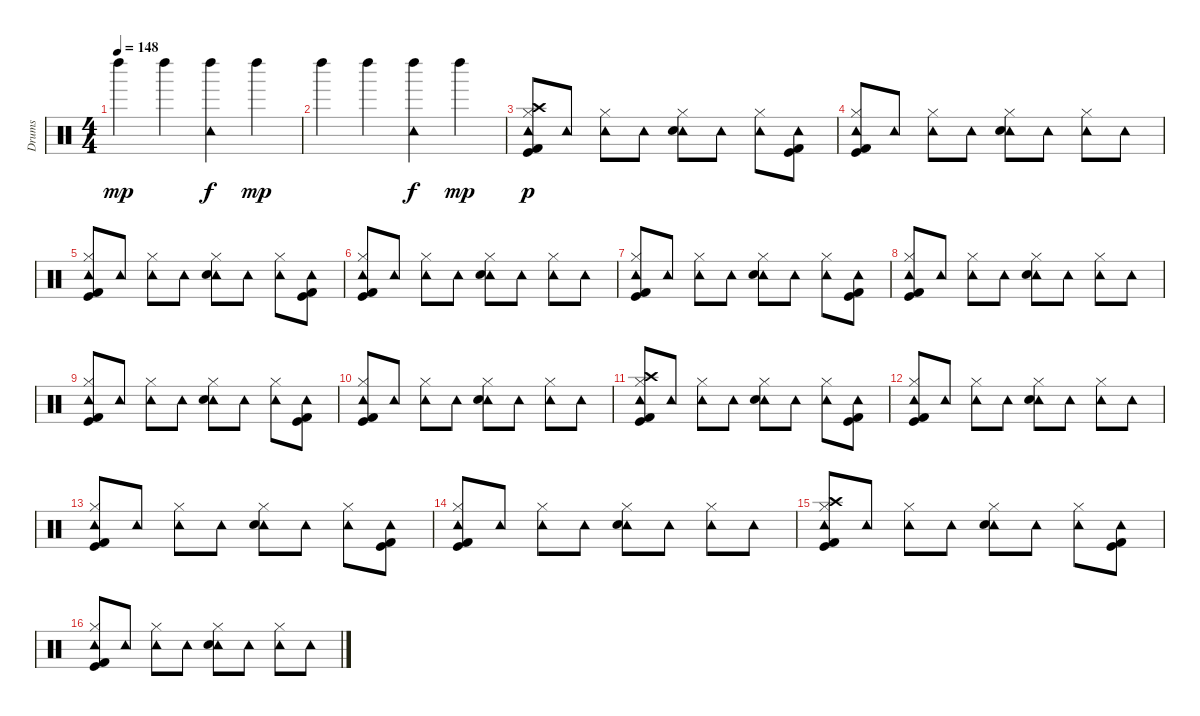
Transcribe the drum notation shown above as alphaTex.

\track ("Drums" "Drums") {instrument percussion}
\staff {score}
\articulation defaults
\ts (4 4)
\tempo 148
\clef neutral
\ks c "Left Maraca (hit)".4{dy mp} "Left Maraca (hit)".4
("Tambourine (hit)" "Left Maraca (hit)").4{dy f} "Left Maraca (hit)".4{dy mp} |
"Left Maraca (hit)".4 "Left Maraca (hit)".4 ("Tambourine (hit)" "Left Maraca (hit)").4{dy f} "Left Maraca (hit)".4{dy mp} |
("Hi-Hat (closed)" "Tambourine (hit)" "Crash high (hit)" "Kick (hit) 2" "Kick (hit)").8{dy p} "Tambourine (hit)".8 ("Hi-Hat (closed)" "Tambourine (hit)").8 "Tambourine (hit)".8 ("Hi-Hat (closed)" "Tambourine (hit)" "Electric Snare (hit)").8 "Tambourine (hit)".8 ("Hi-Hat (closed)" "Tambourine (hit)").8 ("Tambourine (hit)" "Kick (hit) 2" "Kick (hit)").8 |
("Hi-Hat (closed)" "Tambourine (hit)" "Kick (hit) 2" "Kick (hit)").8 "Tambourine (hit)".8 ("Hi-Hat (closed)" "Tambourine (hit)").8 "Tambourine (hit)".8 ("Hi-Hat (closed)" "Tambourine (hit)" "Electric Snare (hit)").8 "Tambourine (hit)".8 ("Hi-Hat (closed)" "Tambourine (hit)").8 "Tambourine (hit)".8 |
("Hi-Hat (closed)" "Tambourine (hit)" "Kick (hit) 2" "Kick (hit)").8 "Tambourine (hit)".8 ("Hi-Hat (closed)" "Tambourine (hit)").8 "Tambourine (hit)".8 ("Hi-Hat (closed)" "Tambourine (hit)" "Electric Snare (hit)").8 "Tambourine (hit)".8 ("Hi-Hat (closed)" "Tambourine (hit)").8 ("Tambourine (hit)" "Kick (hit) 2" "Kick (hit)").8 |
("Hi-Hat (closed)" "Tambourine (hit)" "Kick (hit) 2" "Kick (hit)").8 "Tambourine (hit)".8 ("Hi-Hat (closed)" "Tambourine (hit)").8 "Tambourine (hit)".8 ("Hi-Hat (closed)" "Tambourine (hit)" "Electric Snare (hit)").8 "Tambourine (hit)".8 ("Hi-Hat (closed)" "Tambourine (hit)").8 "Tambourine (hit)".8 |
("Hi-Hat (closed)" "Tambourine (hit)" "Kick (hit) 2" "Kick (hit)").8 "Tambourine (hit)".8 ("Hi-Hat (closed)" "Tambourine (hit)").8 "Tambourine (hit)".8 ("Hi-Hat (closed)" "Tambourine (hit)" "Electric Snare (hit)").8 "Tambourine (hit)".8 ("Hi-Hat (closed)" "Tambourine (hit)").8 ("Tambourine (hit)" "Kick (hit) 2" "Kick (hit)").8 |
("Hi-Hat (closed)" "Tambourine (hit)" "Kick (hit) 2" "Kick (hit)").8 "Tambourine (hit)".8 ("Hi-Hat (closed)" "Tambourine (hit)").8 "Tambourine (hit)".8 ("Hi-Hat (closed)" "Tambourine (hit)" "Electric Snare (hit)").8 "Tambourine (hit)".8 ("Hi-Hat (closed)" "Tambourine (hit)").8 "Tambourine (hit)".8 |
("Hi-Hat (closed)" "Tambourine (hit)" "Kick (hit) 2" "Kick (hit)").8 "Tambourine (hit)".8 ("Hi-Hat (closed)" "Tambourine (hit)").8 "Tambourine (hit)".8 ("Hi-Hat (closed)" "Tambourine (hit)" "Electric Snare (hit)").8 "Tambourine (hit)".8 ("Hi-Hat (closed)" "Tambourine (hit)").8 ("Tambourine (hit)" "Kick (hit) 2" "Kick (hit)").8 |
("Hi-Hat (closed)" "Tambourine (hit)" "Kick (hit) 2" "Kick (hit)").8 "Tambourine (hit)".8 ("Hi-Hat (closed)" "Tambourine (hit)").8 "Tambourine (hit)".8 ("Hi-Hat (closed)" "Tambourine (hit)" "Electric Snare (hit)").8 "Tambourine (hit)".8 ("Hi-Hat (closed)" "Tambourine (hit)").8 "Tambourine (hit)".8 |
("Hi-Hat (closed)" "Tambourine (hit)" "Crash high (hit)" "Kick (hit) 2" "Kick (hit)").8 "Tambourine (hit)".8 ("Hi-Hat (closed)" "Tambourine (hit)").8 "Tambourine (hit)".8 ("Hi-Hat (closed)" "Tambourine (hit)" "Electric Snare (hit)").8 "Tambourine (hit)".8 ("Hi-Hat (closed)" "Tambourine (hit)").8 ("Tambourine (hit)" "Kick (hit) 2" "Kick (hit)").8 |
("Hi-Hat (closed)" "Tambourine (hit)" "Kick (hit) 2" "Kick (hit)").8 "Tambourine (hit)".8 ("Hi-Hat (closed)" "Tambourine (hit)").8 "Tambourine (hit)".8 ("Hi-Hat (closed)" "Tambourine (hit)" "Electric Snare (hit)").8 "Tambourine (hit)".8 ("Hi-Hat (closed)" "Tambourine (hit)").8 "Tambourine (hit)".8 |
("Hi-Hat (closed)" "Tambourine (hit)" "Kick (hit) 2" "Kick (hit)").8 "Tambourine (hit)".8 ("Hi-Hat (closed)" "Tambourine (hit)").8 "Tambourine (hit)".8 ("Hi-Hat (closed)" "Tambourine (hit)" "Electric Snare (hit)").8 "Tambourine (hit)".8 ("Hi-Hat (closed)" "Tambourine (hit)").8 ("Tambourine (hit)" "Kick (hit) 2" "Kick (hit)").8 |
("Hi-Hat (closed)" "Tambourine (hit)" "Kick (hit) 2" "Kick (hit)").8 "Tambourine (hit)".8 ("Hi-Hat (closed)" "Tambourine (hit)").8 "Tambourine (hit)".8 ("Hi-Hat (closed)" "Tambourine (hit)" "Electric Snare (hit)").8 "Tambourine (hit)".8 ("Hi-Hat (closed)" "Tambourine (hit)").8 "Tambourine (hit)".8 |
("Hi-Hat (closed)" "Tambourine (hit)" "Crash high (hit)" "Kick (hit) 2" "Kick (hit)").8 "Tambourine (hit)".8 ("Hi-Hat (closed)" "Tambourine (hit)").8 "Tambourine (hit)".8 ("Hi-Hat (closed)" "Tambourine (hit)" "Electric Snare (hit)").8 "Tambourine (hit)".8 ("Hi-Hat (closed)" "Tambourine (hit)").8 ("Tambourine (hit)" "Kick (hit) 2" "Kick (hit)").8 |
("Hi-Hat (closed)" "Tambourine (hit)" "Kick (hit) 2" "Kick (hit)").8 "Tambourine (hit)".8 ("Hi-Hat (closed)" "Tambourine (hit)").8 "Tambourine (hit)".8 ("Hi-Hat (closed)" "Tambourine (hit)" "Electric Snare (hit)").8 "Tambourine (hit)".8 ("Hi-Hat (closed)" "Tambourine (hit)").8 "Tambourine (hit)".8
